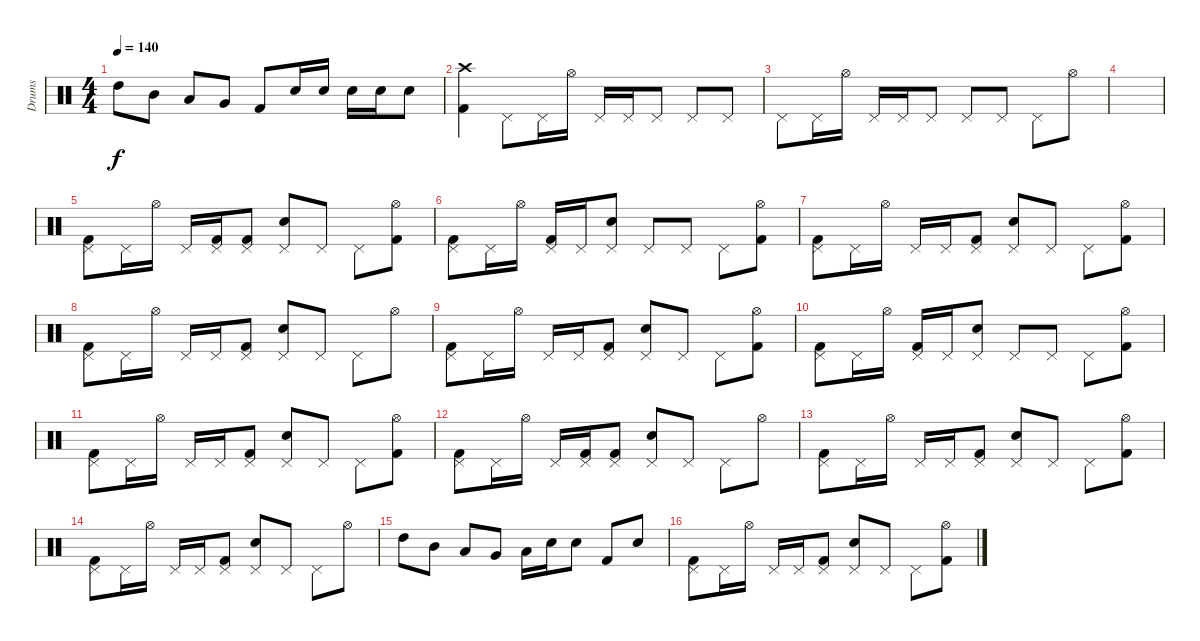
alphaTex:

\track ("Drums" "Drums") {instrument percussion}
\staff {score}
\articulation defaults
\ts (4 4)
\tempo 140
\clef neutral
\ks c "High Tom (hit)".8{dy f} "Mid Tom (hit)".8 "Low Tom (hit)".8 "Very Low Tom (hit)".8 "Kick (hit) 2".8 "Electric Snare (hit)".16 "Electric Snare (hit)".16 "Electric Snare (hit)".16 "Electric Snare (hit)".16 "Electric Snare (hit)".8
|
("Kick (hit) 2" "Crash high (hit)").4 "Pedal Hi-Hat (hit)".8 "Pedal Hi-Hat (hit)".16 "Hi-Hat (open)".16 "Pedal Hi-Hat (hit)".16 "Pedal Hi-Hat (hit)".16 "Pedal Hi-Hat (hit)".8 "Pedal Hi-Hat (hit)".8 "Pedal Hi-Hat (hit)".8 |
"Pedal Hi-Hat (hit)".8 "Pedal Hi-Hat (hit)".16 "Hi-Hat (open)".16 "Pedal Hi-Hat (hit)".16 "Pedal Hi-Hat (hit)".16 "Pedal Hi-Hat (hit)".8 "Pedal Hi-Hat (hit)".8 "Pedal Hi-Hat (hit)".8 "Pedal Hi-Hat (hit)".8 "Hi-Hat (open)".8 |
|
("Pedal Hi-Hat (hit)" "Kick (hit) 2").8 "Pedal Hi-Hat (hit)".16 "Hi-Hat (open)".16 "Pedal Hi-Hat (hit)".16 ("Pedal Hi-Hat (hit)" "Kick (hit) 2").16 ("Pedal Hi-Hat (hit)" "Kick (hit) 2").8 ("Pedal Hi-Hat (hit)" "Electric Snare (hit)").8 "Pedal Hi-Hat (hit)".8 "Pedal Hi-Hat (hit)".8 ("Hi-Hat (open)" "Kick (hit) 2").8 |
("Pedal Hi-Hat (hit)" "Kick (hit) 2").8 "Pedal Hi-Hat (hit)".16 "Hi-Hat (open)".16 ("Pedal Hi-Hat (hit)" "Kick (hit) 2").16 "Pedal Hi-Hat (hit)".16 ("Pedal Hi-Hat (hit)" "Electric Snare (hit)").8 "Pedal Hi-Hat (hit)".8 "Pedal Hi-Hat (hit)".8 "Pedal Hi-Hat (hit)".8 ("Hi-Hat (open)" "Kick (hit) 2").8 |
("Pedal Hi-Hat (hit)" "Kick (hit) 2").8 "Pedal Hi-Hat (hit)".16 "Hi-Hat (open)".16 "Pedal Hi-Hat (hit)".16 "Pedal Hi-Hat (hit)".16 ("Pedal Hi-Hat (hit)" "Kick (hit) 2").8 ("Pedal Hi-Hat (hit)" "Electric Snare (hit)").8 "Pedal Hi-Hat (hit)".8 "Pedal Hi-Hat (hit)".8 ("Hi-Hat (open)" "Kick (hit) 2").8 |
("Pedal Hi-Hat (hit)" "Kick (hit) 2").8 "Pedal Hi-Hat (hit)".16 "Hi-Hat (open)".16 "Pedal Hi-Hat (hit)".16 "Pedal Hi-Hat (hit)".16 ("Pedal Hi-Hat (hit)" "Kick (hit) 2").8 ("Pedal Hi-Hat (hit)" "Electric Snare (hit)").8 "Pedal Hi-Hat (hit)".8 "Pedal Hi-Hat (hit)".8 "Hi-Hat (open)".8 |
("Pedal Hi-Hat (hit)" "Kick (hit) 2").8 "Pedal Hi-Hat (hit)".16 "Hi-Hat (open)".16 "Pedal Hi-Hat (hit)".16 "Pedal Hi-Hat (hit)".16 ("Pedal Hi-Hat (hit)" "Kick (hit) 2").8 ("Pedal Hi-Hat (hit)" "Electric Snare (hit)").8 "Pedal Hi-Hat (hit)".8 "Pedal Hi-Hat (hit)".8 ("Hi-Hat (open)" "Kick (hit) 2").8 |
("Pedal Hi-Hat (hit)" "Kick (hit) 2").8 "Pedal Hi-Hat (hit)".16 "Hi-Hat (open)".16 ("Pedal Hi-Hat (hit)" "Kick (hit) 2").16 "Pedal Hi-Hat (hit)".16 ("Pedal Hi-Hat (hit)" "Electric Snare (hit)").8 "Pedal Hi-Hat (hit)".8 "Pedal Hi-Hat (hit)".8 "Pedal Hi-Hat (hit)".8 ("Hi-Hat (open)" "Kick (hit) 2").8 |
("Pedal Hi-Hat (hit)" "Kick (hit) 2").8 "Pedal Hi-Hat (hit)".16 "Hi-Hat (open)".16 "Pedal Hi-Hat (hit)".16 "Pedal Hi-Hat (hit)".16 ("Pedal Hi-Hat (hit)" "Kick (hit) 2").8 ("Pedal Hi-Hat (hit)" "Electric Snare (hit)").8 "Pedal Hi-Hat (hit)".8 "Pedal Hi-Hat (hit)".8 ("Hi-Hat (open)" "Kick (hit) 2").8 |
("Pedal Hi-Hat (hit)" "Kick (hit) 2").8 "Pedal Hi-Hat (hit)".16 "Hi-Hat (open)".16 "Pedal Hi-Hat (hit)".16 ("Pedal Hi-Hat (hit)" "Kick (hit) 2").16 ("Pedal Hi-Hat (hit)" "Kick (hit) 2").8 ("Pedal Hi-Hat (hit)" "Electric Snare (hit)").8 "Pedal Hi-Hat (hit)".8 "Pedal Hi-Hat (hit)".8 "Hi-Hat (open)".8 |
("Pedal Hi-Hat (hit)" "Kick (hit) 2").8 "Pedal Hi-Hat (hit)".16 "Hi-Hat (open)".16 "Pedal Hi-Hat (hit)".16 "Pedal Hi-Hat (hit)".16 ("Pedal Hi-Hat (hit)" "Kick (hit) 2").8 ("Pedal Hi-Hat (hit)" "Electric Snare (hit)").8 "Pedal Hi-Hat (hit)".8 "Pedal Hi-Hat (hit)".8 ("Hi-Hat (open)" "Kick (hit) 2").8 |
("Pedal Hi-Hat (hit)" "Kick (hit) 2").8 "Pedal Hi-Hat (hit)".16 "Hi-Hat (open)".16 "Pedal Hi-Hat (hit)".16 "Pedal Hi-Hat (hit)".16 ("Pedal Hi-Hat (hit)" "Kick (hit) 2").8 ("Pedal Hi-Hat (hit)" "Electric Snare (hit)").8 "Pedal Hi-Hat (hit)".8 "Pedal Hi-Hat (hit)".8 "Hi-Hat (open)".8 |
"High Tom (hit)".8 "Mid Tom (hit)".8 "Low Tom (hit)".8 "Very Low Tom (hit)".8 "Low Floor Tom (hit)".16 "Electric Snare (hit)".16 "Electric Snare (hit)".8 "Kick (hit) 2".8 "Electric Snare (hit)".8 |
("Pedal Hi-Hat (hit)" "Kick (hit) 2").8 "Pedal Hi-Hat (hit)".16 "Hi-Hat (open)".16 "Pedal Hi-Hat (hit)".16 "Pedal Hi-Hat (hit)".16 ("Pedal Hi-Hat (hit)" "Kick (hit) 2").8 ("Pedal Hi-Hat (hit)" "Electric Snare (hit)").8 "Pedal Hi-Hat (hit)".8 "Pedal Hi-Hat (hit)".8 ("Hi-Hat (open)" "Kick (hit) 2").8
